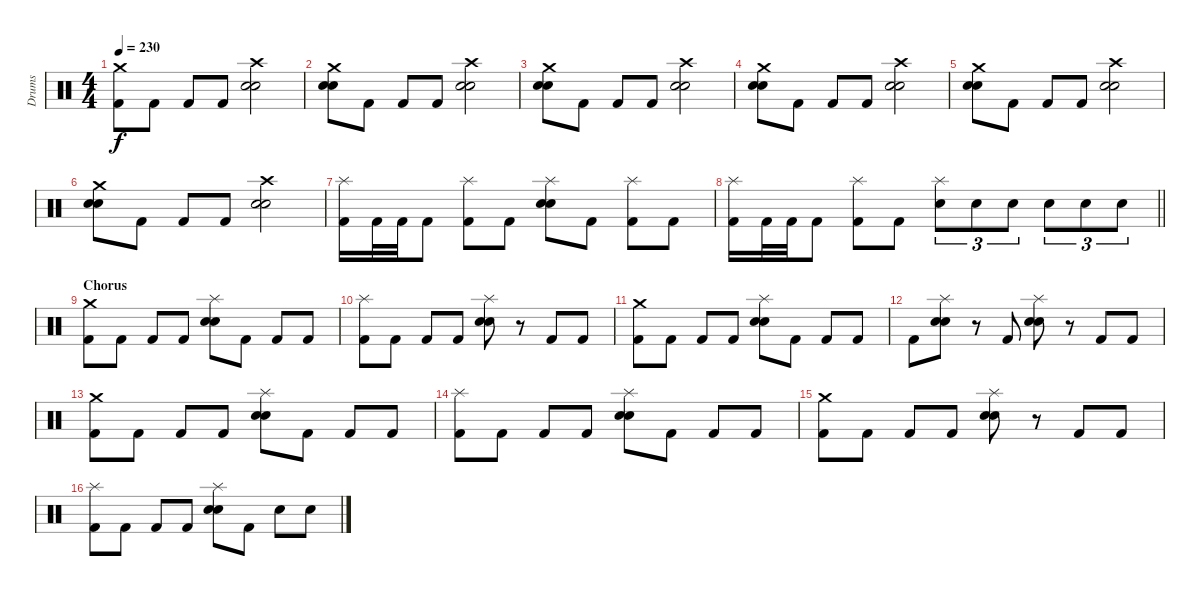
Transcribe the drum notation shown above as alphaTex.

\track ("Drums" "Drums") {instrument percussion}
\staff {score}
\articulation defaults
\ts (4 4)
\tempo 230
\clef neutral
\ks c
("Crash medium (hit)" "Kick (hit) 2").8{dy f} "Kick (hit) 2".8 "Kick (hit) 2".8 "Kick (hit) 2".8 ("Crash high (hit)" "Electric Snare (hit)" "Snare (hit) 2").2 |
("Crash medium (hit)" "Electric Snare (hit)" "Snare (hit) 2").8 "Kick (hit) 2".8 "Kick (hit) 2".8 "Kick (hit) 2".8 ("Crash high (hit)" "Electric Snare (hit)" "Snare (hit) 2").2 |
("Crash medium (hit)" "Electric Snare (hit)" "Snare (hit) 2").8 "Kick (hit) 2".8 "Kick (hit) 2".8 "Kick (hit) 2".8 ("Crash high (hit)" "Electric Snare (hit)" "Snare (hit) 2").2 |
("Crash medium (hit)" "Electric Snare (hit)" "Snare (hit) 2").8 "Kick (hit) 2".8 "Kick (hit) 2".8 "Kick (hit) 2".8 ("Crash high (hit)" "Electric Snare (hit)" "Snare (hit) 2").2 |
("Crash medium (hit)" "Electric Snare (hit)" "Snare (hit) 2").8 "Kick (hit) 2".8 "Kick (hit) 2".8 "Kick (hit) 2".8 ("Crash high (hit)" "Electric Snare (hit)" "Snare (hit) 2").2 |
("Crash medium (hit)" "Electric Snare (hit)" "Snare (hit) 2").8 "Kick (hit) 2".8 "Kick (hit) 2".8 "Kick (hit) 2".8 ("Crash high (hit)" "Electric Snare (hit)" "Snare (hit) 2").2 |
("Splash (hit)" "Kick (hit) 2").16 "Kick (hit) 2".32 "Kick (hit) 2".32 "Kick (hit) 2".8 ("Splash (hit)" "Kick (hit) 2").8 "Kick (hit) 2".8 ("Splash (hit)" "Electric Snare (hit)" "Snare (hit) 2").8 "Kick (hit) 2".8 ("Splash (hit)" "Kick (hit) 2").8 "Kick (hit) 2".8 |
\barLineRight lightlight
("Splash (hit)" "Kick (hit) 2").16 "Kick (hit) 2".32 "Kick (hit) 2".32 "Kick (hit) 2".8 ("Splash (hit)" "Kick (hit) 2").8 "Kick (hit) 2".8 ("Splash (hit)" "Electric Snare (hit)").8{tu (3 2)} "Electric Snare (hit)".8{tu (3 2)} "Electric Snare (hit)".8{tu (3 2)} "Electric Snare (hit)".8{tu (3 2)} "Electric Snare (hit)".8{tu (3 2)} "Electric Snare (hit)".8{tu (3 2)} |
\section ("" "Chorus")
("Crash medium (hit)" "Kick (hit) 2").8 "Kick (hit) 2".8 "Kick (hit) 2".8 "Kick (hit) 2".8 ("Splash (hit)" "Electric Snare (hit)" "Snare (hit) 2").8 "Kick (hit) 2".8 "Kick (hit) 2".8 "Kick (hit) 2".8 |
("Splash (hit)" "Kick (hit) 2").8 "Kick (hit) 2".8 "Kick (hit) 2".8 "Kick (hit) 2".8 ("Splash (hit)" "Electric Snare (hit)" "Snare (hit) 2").8 r.8 "Kick (hit) 2".8 "Kick (hit) 2".8 |
("Crash medium (hit)" "Kick (hit) 2").8 "Kick (hit) 2".8 "Kick (hit) 2".8 "Kick (hit) 2".8 ("Splash (hit)" "Electric Snare (hit)" "Snare (hit) 2").8 "Kick (hit) 2".8 "Kick (hit) 2".8 "Kick (hit) 2".8 |
"Kick (hit) 2".8 ("Splash (hit)" "Electric Snare (hit)" "Snare (hit) 2").8 r.8 "Kick (hit) 2".8 ("Splash (hit)" "Electric Snare (hit)" "Snare (hit) 2").8 r.8 "Kick (hit) 2".8 "Kick (hit) 2".8 |
("Crash medium (hit)" "Kick (hit) 2").8 "Kick (hit) 2".8 "Kick (hit) 2".8 "Kick (hit) 2".8 ("Splash (hit)" "Electric Snare (hit)" "Snare (hit) 2").8 "Kick (hit) 2".8 "Kick (hit) 2".8 "Kick (hit) 2".8 |
("Splash (hit)" "Kick (hit) 2").8 "Kick (hit) 2".8 "Kick (hit) 2".8 "Kick (hit) 2".8 ("Splash (hit)" "Electric Snare (hit)" "Snare (hit) 2").8 "Kick (hit) 2".8 "Kick (hit) 2".8 "Kick (hit) 2".8 |
("Crash medium (hit)" "Kick (hit) 2").8 "Kick (hit) 2".8 "Kick (hit) 2".8 "Kick (hit) 2".8 ("Splash (hit)" "Electric Snare (hit)" "Snare (hit) 2").8 r.8 "Kick (hit) 2".8 "Kick (hit) 2".8 |
("Splash (hit)" "Kick (hit) 2").8 "Kick (hit) 2".8 "Kick (hit) 2".8 "Kick (hit) 2".8 ("Splash (hit)" "Electric Snare (hit)" "Snare (hit) 2").8 "Kick (hit) 2".8 "Electric Snare (hit)".8 "Electric Snare (hit)".8
